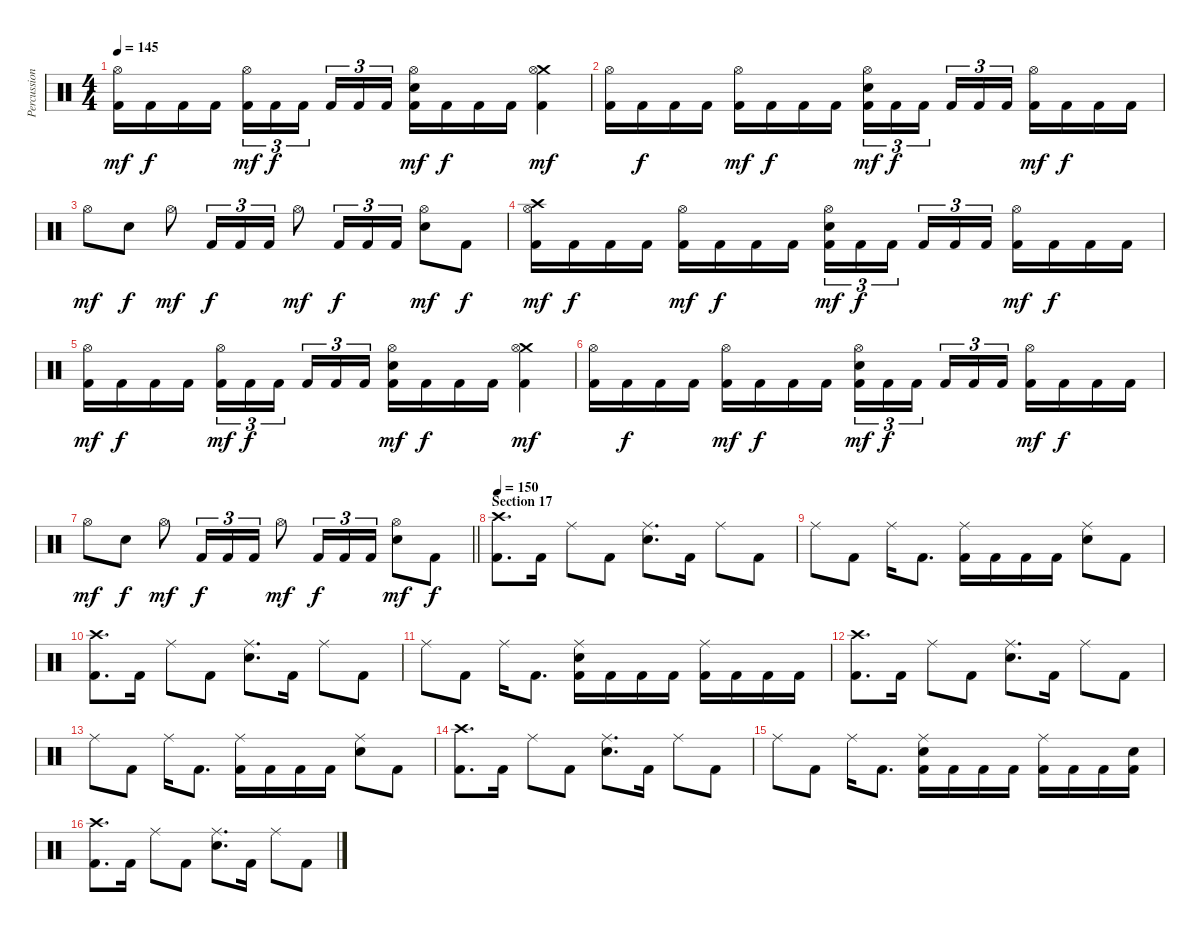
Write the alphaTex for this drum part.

\track ("Percussion" "Percussion") {instrument percussion}
\staff {score}
\articulation defaults
\ts (4 4)
\tempo 145
\clef neutral
\ks c
("Hi-Hat (open)" "Kick (hit) 2").16{dy mf} "Kick (hit) 2".16{dy f} "Kick (hit) 2".16 "Kick (hit) 2".16 ("Hi-Hat (open)" "Kick (hit) 2").16{tu (3 2) dy mf} "Kick (hit) 2".16{tu (3 2) dy f} "Kick (hit) 2".16{tu (3 2) beam splitsecondary} "Kick (hit) 2".16{tu (3 2)} "Kick (hit) 2".16{tu (3 2)} "Kick (hit) 2".16{tu (3 2)} ("Hi-Hat (open)" "Electric Snare (hit)" "Kick (hit) 2").16{dy mf} "Kick (hit) 2".16{dy f} "Kick (hit) 2".16 "Kick (hit) 2".16 ("Crash medium (hit)" "Hi-Hat (open)" "Kick (hit) 2").4{dy mf} |
("Hi-Hat (open)" "Kick (hit) 2").16 "Kick (hit) 2".16{dy f} "Kick (hit) 2".16 "Kick (hit) 2".16 ("Hi-Hat (open)" "Kick (hit) 2").16{dy mf} "Kick (hit) 2".16{dy f} "Kick (hit) 2".16 "Kick (hit) 2".16 ("Hi-Hat (open)" "Electric Snare (hit)" "Kick (hit) 2").16{tu (3 2) dy mf} "Kick (hit) 2".16{tu (3 2) dy f} "Kick (hit) 2".16{tu (3 2) beam splitsecondary} "Kick (hit) 2".16{tu (3 2)} "Kick (hit) 2".16{tu (3 2)} "Kick (hit) 2".16{tu (3 2)} ("Hi-Hat (open)" "Kick (hit) 2").16{dy mf} "Kick (hit) 2".16{dy f} "Kick (hit) 2".16 "Kick (hit) 2".16 |
"Hi-Hat (open)".8{dy mf} "Electric Snare (hit)".8{dy f} "Hi-Hat (open)".8{dy mf} "Kick (hit) 2".16{tu (3 2) dy f} "Kick (hit) 2".16{tu (3 2)} "Kick (hit) 2".16{tu (3 2)} "Hi-Hat (open)".8{dy mf} "Kick (hit) 2".16{tu (3 2) dy f} "Kick (hit) 2".16{tu (3 2)} "Kick (hit) 2".16{tu (3 2)} ("Hi-Hat (open)" "Electric Snare (hit)").8{dy mf} "Kick (hit) 2".8{dy f} |
("Crash high (hit)" "Hi-Hat (open)" "Kick (hit) 2").16{dy mf} "Kick (hit) 2".16{dy f} "Kick (hit) 2".16 "Kick (hit) 2".16 ("Hi-Hat (open)" "Kick (hit) 2").16{dy mf} "Kick (hit) 2".16{dy f} "Kick (hit) 2".16 "Kick (hit) 2".16 ("Hi-Hat (open)" "Electric Snare (hit)" "Kick (hit) 2").16{tu (3 2) dy mf} "Kick (hit) 2".16{tu (3 2) dy f} "Kick (hit) 2".16{tu (3 2) beam splitsecondary} "Kick (hit) 2".16{tu (3 2)} "Kick (hit) 2".16{tu (3 2)} "Kick (hit) 2".16{tu (3 2)} ("Hi-Hat (open)" "Kick (hit) 2").16{dy mf} "Kick (hit) 2".16{dy f} "Kick (hit) 2".16 "Kick (hit) 2".16 |
("Hi-Hat (open)" "Kick (hit) 2").16{dy mf} "Kick (hit) 2".16{dy f} "Kick (hit) 2".16 "Kick (hit) 2".16 ("Hi-Hat (open)" "Kick (hit) 2").16{tu (3 2) dy mf} "Kick (hit) 2".16{tu (3 2) dy f} "Kick (hit) 2".16{tu (3 2) beam splitsecondary} "Kick (hit) 2".16{tu (3 2)} "Kick (hit) 2".16{tu (3 2)} "Kick (hit) 2".16{tu (3 2)} ("Hi-Hat (open)" "Electric Snare (hit)" "Kick (hit) 2").16{dy mf} "Kick (hit) 2".16{dy f} "Kick (hit) 2".16 "Kick (hit) 2".16 ("Crash medium (hit)" "Hi-Hat (open)" "Kick (hit) 2").4{dy mf} |
("Hi-Hat (open)" "Kick (hit) 2").16 "Kick (hit) 2".16{dy f} "Kick (hit) 2".16 "Kick (hit) 2".16 ("Hi-Hat (open)" "Kick (hit) 2").16{dy mf} "Kick (hit) 2".16{dy f} "Kick (hit) 2".16 "Kick (hit) 2".16 ("Hi-Hat (open)" "Electric Snare (hit)" "Kick (hit) 2").16{tu (3 2) dy mf} "Kick (hit) 2".16{tu (3 2) dy f} "Kick (hit) 2".16{tu (3 2) beam splitsecondary} "Kick (hit) 2".16{tu (3 2)} "Kick (hit) 2".16{tu (3 2)} "Kick (hit) 2".16{tu (3 2)} ("Hi-Hat (open)" "Kick (hit) 2").16{dy mf} "Kick (hit) 2".16{dy f} "Kick (hit) 2".16 "Kick (hit) 2".16 |
\barLineRight lightlight "Hi-Hat (open)".8{dy mf} "Electric Snare (hit)".8{dy f} "Hi-Hat (open)".8{dy mf} "Kick (hit) 2".16{tu (3 2) dy f} "Kick (hit) 2".16{tu (3 2)} "Kick (hit) 2".16{tu (3 2)} "Hi-Hat (open)".8{dy mf} "Kick (hit) 2".16{tu (3 2) dy f} "Kick (hit) 2".16{tu (3 2)} "Kick (hit) 2".16{tu (3 2)}
("Hi-Hat (open)" "Electric Snare (hit)").8{dy mf} "Kick (hit) 2".8{dy f} |
\section ("" "Section 17")
\tempo 150
("Crash high (hit)" "Kick (hit) 2").8{d} "Kick (hit) 2".16 "Ride (middle)".8 "Kick (hit) 2".8 ("Ride (middle)" "Electric Snare (hit)").8{d} "Kick (hit) 2".16 "Ride (middle)".8 "Kick (hit) 2".8 |
"Ride (middle)".8 "Kick (hit) 2".8 "Ride (middle)".16 "Kick (hit) 2".8{d} ("Ride (middle)" "Kick (hit) 2").16 "Kick (hit) 2".16 "Kick (hit) 2".16 "Kick (hit) 2".16 ("Ride (middle)" "Electric Snare (hit)").8 "Kick (hit) 2".8 |
("Crash high (hit)" "Kick (hit) 2").8{d} "Kick (hit) 2".16 "Ride (middle)".8 "Kick (hit) 2".8 ("Ride (middle)" "Electric Snare (hit)").8{d} "Kick (hit) 2".16 "Ride (middle)".8 "Kick (hit) 2".8 |
"Ride (middle)".8 "Kick (hit) 2".8 "Ride (middle)".16 "Kick (hit) 2".8{d} ("Ride (middle)" "Electric Snare (hit)" "Kick (hit) 2").16 "Kick (hit) 2".16 "Kick (hit) 2".16 "Kick (hit) 2".16 ("Ride (middle)" "Kick (hit) 2").16 "Kick (hit) 2".16 "Kick (hit) 2".16 "Kick (hit) 2".16 |
("Crash high (hit)" "Kick (hit) 2").8{d} "Kick (hit) 2".16 "Ride (middle)".8 "Kick (hit) 2".8 ("Ride (middle)" "Electric Snare (hit)").8{d} "Kick (hit) 2".16 "Ride (middle)".8 "Kick (hit) 2".8 |
"Ride (middle)".8 "Kick (hit) 2".8 "Ride (middle)".16 "Kick (hit) 2".8{d} ("Ride (middle)" "Kick (hit) 2").16 "Kick (hit) 2".16 "Kick (hit) 2".16 "Kick (hit) 2".16 ("Ride (middle)" "Electric Snare (hit)").8 "Kick (hit) 2".8 |
("Crash high (hit)" "Kick (hit) 2").8{d} "Kick (hit) 2".16 "Ride (middle)".8 "Kick (hit) 2".8 ("Ride (middle)" "Electric Snare (hit)").8{d} "Kick (hit) 2".16 "Ride (middle)".8 "Kick (hit) 2".8 |
"Ride (middle)".8 "Kick (hit) 2".8 "Ride (middle)".16 "Kick (hit) 2".8{d} ("Ride (middle)" "Electric Snare (hit)" "Kick (hit) 2").16 "Kick (hit) 2".16 "Kick (hit) 2".16 "Kick (hit) 2".16 ("Ride (middle)" "Kick (hit) 2").16 "Kick (hit) 2".16 "Kick (hit) 2".16 ("Electric Snare (hit)" "Kick (hit) 2").16 |
("Crash high (hit)" "Kick (hit) 2").8{d} "Kick (hit) 2".16 "Ride (middle)".8 "Kick (hit) 2".8 ("Ride (middle)" "Electric Snare (hit)").8{d} "Kick (hit) 2".16 "Ride (middle)".8 "Kick (hit) 2".8
